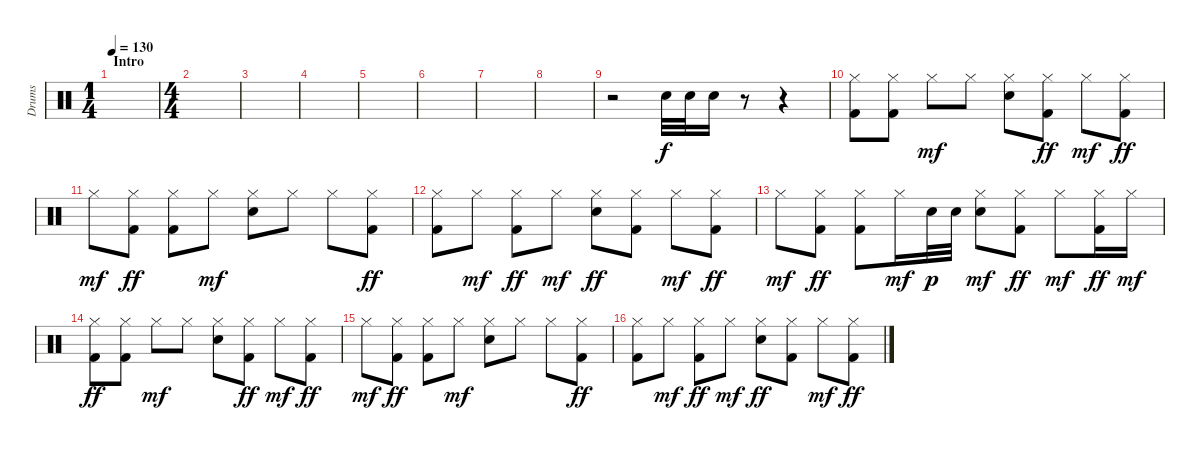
\track ("Drums" "Drums") {instrument percussion}
\staff {score}
\articulation defaults
\ts (1 4)
\section ("" "Intro")
\tempo 130
\clef neutral
\ks c
|
\ts (4 4)
|
|
|
|
|
|
|
r.2 "Snare (hit) 2".32 "Snare (hit) 2".32 "Snare (hit) 2".16 r.8 r.4 |
("Hi-Hat (closed)" "Kick (hit) 2").8 ("Hi-Hat (closed)" "Kick (hit) 2").8 "Hi-Hat (closed)".8{dy mf} "Hi-Hat (closed)".8 ("Hi-Hat (closed)" "Snare (hit) 2").8 ("Hi-Hat (closed)" "Kick (hit) 2").8{dy ff} "Hi-Hat (closed)".8{dy mf} ("Hi-Hat (closed)" "Kick (hit) 2").8{dy ff} |
"Hi-Hat (closed)".8{dy mf} ("Hi-Hat (closed)" "Kick (hit) 2").8{dy ff} ("Hi-Hat (closed)" "Kick (hit) 2").8 "Hi-Hat (closed)".8{dy mf} ("Hi-Hat (closed)" "Snare (hit) 2").8 "Hi-Hat (closed)".8 "Hi-Hat (closed)".8 ("Hi-Hat (closed)" "Kick (hit) 2").8{dy ff} |
("Hi-Hat (closed)" "Kick (hit) 2").8 "Hi-Hat (closed)".8{dy mf} ("Hi-Hat (closed)" "Kick (hit) 2").8{dy ff} "Hi-Hat (closed)".8{dy mf} ("Hi-Hat (closed)" "Snare (hit) 2").8{dy ff} ("Hi-Hat (closed)" "Kick (hit) 2").8 "Hi-Hat (closed)".8{dy mf} ("Hi-Hat (closed)" "Kick (hit) 2").8{dy ff} |
"Hi-Hat (closed)".8{dy mf} ("Hi-Hat (closed)" "Kick (hit) 2").8{dy ff} ("Hi-Hat (closed)" "Kick (hit) 2").8 "Hi-Hat (closed)".16{dy mf} "Snare (hit) 2".32{dy p} "Snare (hit) 2".32 ("Hi-Hat (closed)" "Snare (hit) 2").8{dy mf} ("Hi-Hat (closed)" "Kick (hit) 2").8{dy ff} "Hi-Hat (closed)".8{dy mf} ("Hi-Hat (closed)" "Kick (hit) 2").16{dy ff} "Hi-Hat (closed)".16{dy mf} |
("Hi-Hat (closed)" "Kick (hit) 2").8{dy ff} ("Hi-Hat (closed)" "Kick (hit) 2").8 "Hi-Hat (closed)".8{dy mf} "Hi-Hat (closed)".8 ("Hi-Hat (closed)" "Snare (hit) 2").8 ("Hi-Hat (closed)" "Kick (hit) 2").8{dy ff} "Hi-Hat (closed)".8{dy mf} ("Hi-Hat (closed)" "Kick (hit) 2").8{dy ff} |
"Hi-Hat (closed)".8{dy mf} ("Hi-Hat (closed)" "Kick (hit) 2").8{dy ff} ("Hi-Hat (closed)" "Kick (hit) 2").8 "Hi-Hat (closed)".8{dy mf} ("Hi-Hat (closed)" "Snare (hit) 2").8 "Hi-Hat (closed)".8 "Hi-Hat (closed)".8 ("Hi-Hat (closed)" "Kick (hit) 2").8{dy ff} |
("Hi-Hat (closed)" "Kick (hit) 2").8 "Hi-Hat (closed)".8{dy mf} ("Hi-Hat (closed)" "Kick (hit) 2").8{dy ff} "Hi-Hat (closed)".8{dy mf} ("Hi-Hat (closed)" "Snare (hit) 2").8{dy ff} ("Hi-Hat (closed)" "Kick (hit) 2").8 "Hi-Hat (closed)".8{dy mf} ("Hi-Hat (closed)" "Kick (hit) 2").8{dy ff}
